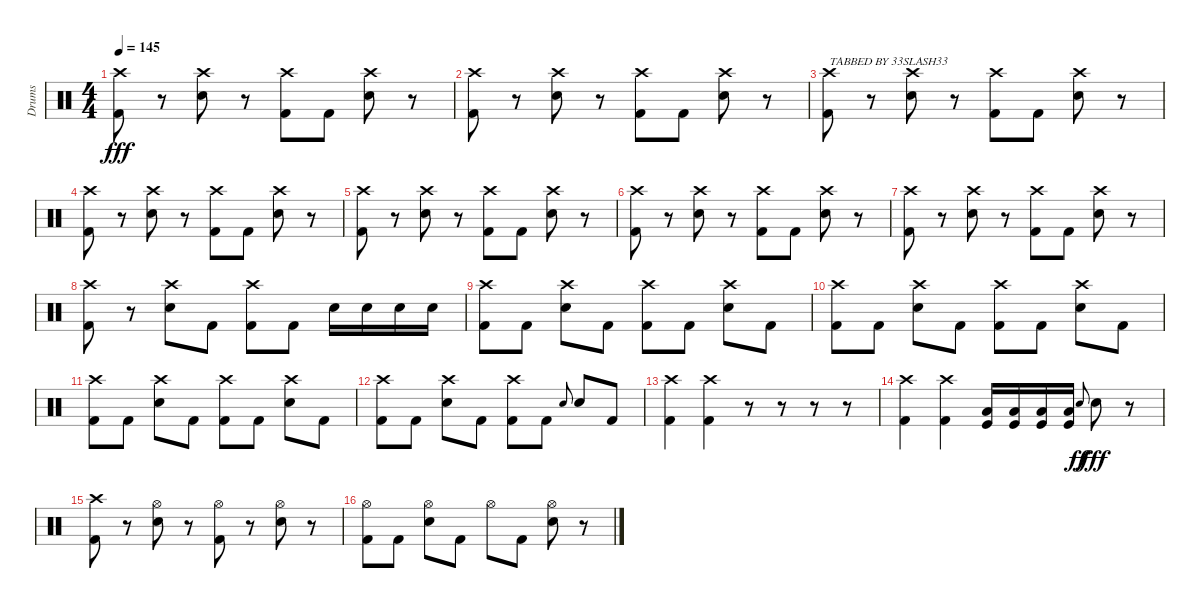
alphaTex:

\track ("Drums" "Drums") {instrument percussion}
\staff {score}
\articulation defaults
\ts (4 4)
\tempo 145
\clef neutral
\ks c
("Crash high (hit)" "Kick (hit) 2").8{dy fff} r.8 ("Crash high (hit)" "Snare (hit) 2").8 r.8 ("Crash high (hit)" "Kick (hit) 2").8 "Kick (hit) 2".8 ("Crash high (hit)" "Snare (hit) 2").8 r.8 |
("Crash high (hit)" "Kick (hit) 2").8 r.8 ("Crash high (hit)" "Snare (hit) 2").8 r.8 ("Crash high (hit)" "Kick (hit) 2").8 "Kick (hit) 2".8 ("Crash high (hit)" "Snare (hit) 2").8 r.8 |
("Crash high (hit)" "Kick (hit) 2").8{txt "TABBED BY 33SLASH33"} r.8 ("Crash high (hit)" "Snare (hit) 2").8 r.8 ("Crash high (hit)" "Kick (hit) 2").8 "Kick (hit) 2".8 ("Crash high (hit)" "Snare (hit) 2").8 r.8 |
("Crash high (hit)" "Kick (hit) 2").8 r.8 ("Crash high (hit)" "Snare (hit) 2").8 r.8 ("Crash high (hit)" "Kick (hit) 2").8 "Kick (hit) 2".8 ("Crash high (hit)" "Snare (hit) 2").8 r.8 |
("Crash high (hit)" "Kick (hit) 2").8 r.8 ("Crash high (hit)" "Snare (hit) 2").8 r.8 ("Crash high (hit)" "Kick (hit) 2").8 "Kick (hit) 2".8 ("Crash high (hit)" "Snare (hit) 2").8 r.8 |
("Crash high (hit)" "Kick (hit) 2").8 r.8 ("Crash high (hit)" "Snare (hit) 2").8 r.8 ("Crash high (hit)" "Kick (hit) 2").8 "Kick (hit) 2".8 ("Crash high (hit)" "Snare (hit) 2").8 r.8 |
("Crash high (hit)" "Kick (hit) 2").8 r.8 ("Crash high (hit)" "Snare (hit) 2").8 r.8 ("Crash high (hit)" "Kick (hit) 2").8 "Kick (hit) 2".8 ("Crash high (hit)" "Snare (hit) 2").8 r.8 |
("Crash high (hit)" "Kick (hit) 2").8 r.8 ("Crash high (hit)" "Snare (hit) 2").8 "Kick (hit) 2".8 ("Crash high (hit)" "Kick (hit) 2").8 "Kick (hit) 2".8 "Snare (hit) 2".16 "Snare (hit) 2".16 "Snare (hit) 2".16 "Snare (hit) 2".16 |
("Crash high (hit)" "Kick (hit) 2").8 "Kick (hit) 2".8 ("Crash high (hit)" "Snare (hit) 2").8 "Kick (hit) 2".8 ("Crash high (hit)" "Kick (hit) 2").8 "Kick (hit) 2".8 ("Crash high (hit)" "Snare (hit) 2").8 "Kick (hit) 2".8 |
("Crash high (hit)" "Kick (hit) 2").8 "Kick (hit) 2".8 ("Crash high (hit)" "Snare (hit) 2").8 "Kick (hit) 2".8 ("Crash high (hit)" "Kick (hit) 2").8 "Kick (hit) 2".8 ("Crash high (hit)" "Snare (hit) 2").8 "Kick (hit) 2".8 |
("Crash high (hit)" "Kick (hit) 2").8 "Kick (hit) 2".8 ("Crash high (hit)" "Snare (hit) 2").8 "Kick (hit) 2".8 ("Crash high (hit)" "Kick (hit) 2").8 "Kick (hit) 2".8 ("Crash high (hit)" "Snare (hit) 2").8 "Kick (hit) 2".8 |
("Crash high (hit)" "Kick (hit) 2").8 "Kick (hit) 2".8 ("Crash high (hit)" "Snare (hit) 2").8 "Kick (hit) 2".8 ("Crash high (hit)" "Kick (hit) 2").8 "Kick (hit) 2".8 "Snare (hit) 2".8{gr onbeat} "Snare (hit) 2".8 "Kick (hit) 2".8 |
("Crash high (hit)" "Kick (hit) 2").4 ("Crash high (hit)" "Kick (hit) 2").4 r.8 r.8 r.8 r.8 |
("Crash high (hit)" "Kick (hit) 2").4 ("Crash high (hit)" "Kick (hit) 2").4 ("Low Floor Tom (hit)" "Kick (hit)").16 ("Low Floor Tom (hit)" "Kick (hit)").16 ("Low Floor Tom (hit)" "Kick (hit)").16 ("Low Floor Tom (hit)" "Kick (hit)").16 "Snare (hit) 2".8{gr onbeat dy ff} "Snare (hit) 2".8{dy fff} r.8 |
("Crash high (hit)" "Kick (hit) 2").8 r.8 ("Hi-Hat (open)" "Snare (hit) 2").8 r.8 ("Hi-Hat (open)" "Kick (hit) 2").8 r.8 ("Hi-Hat (open)" "Snare (hit) 2").8 r.8 |
("Hi-Hat (open)" "Kick (hit) 2").8 "Kick (hit) 2".8 ("Hi-Hat (open)" "Snare (hit) 2").8 "Kick (hit) 2".8 "Hi-Hat (open)".8 "Kick (hit) 2".8 ("Hi-Hat (open)" "Snare (hit) 2").8 r.8
